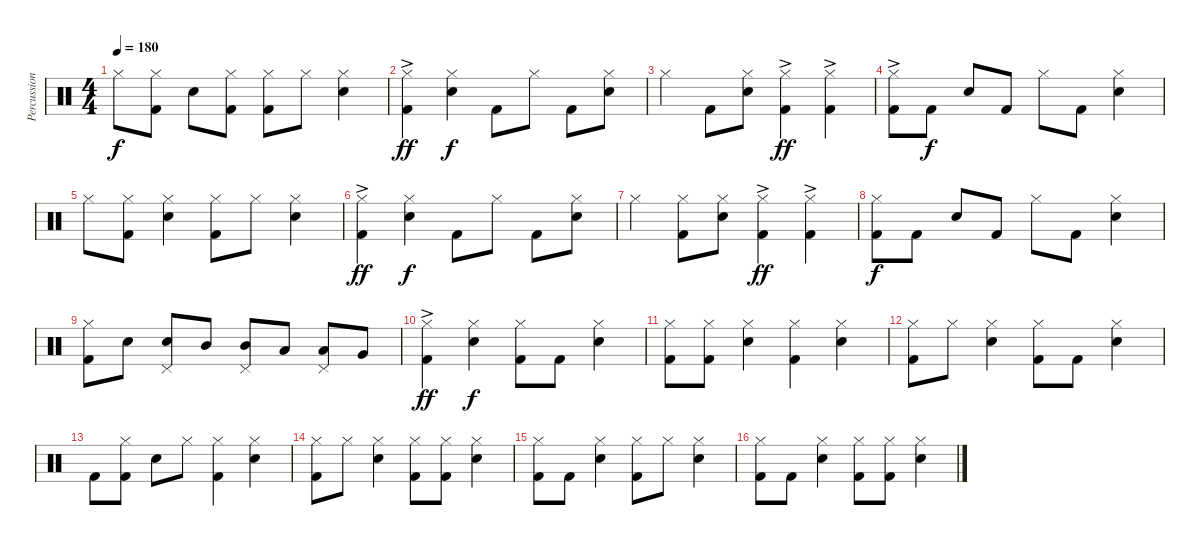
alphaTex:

\track ("Percussion" "Percussion") {instrument percussion}
\staff {score}
\articulation defaults
\ts (4 4)
\tempo 180
\clef neutral
\ks c "Hi-Hat (closed)".8{dy f}
("Hi-Hat (closed)" "Kick (hit) 2").8 "Snare (hit) 2".8 ("Hi-Hat (closed)" "Kick (hit) 2").8 ("Hi-Hat (closed)" "Kick (hit) 2").8 "Hi-Hat (closed)".8 ("Hi-Hat (closed)" "Snare (hit) 2").4 |
("Hi-Hat (closed)"{ac} "Kick (hit) 2").4{dy ff} ("Hi-Hat (closed)" "Snare (hit) 2").4{dy f} "Kick (hit) 2".8 "Hi-Hat (closed)".8 "Kick (hit) 2".8 ("Hi-Hat (closed)" "Snare (hit) 2").8 |
"Hi-Hat (closed)".4 "Kick (hit) 2".8 ("Hi-Hat (closed)" "Snare (hit) 2").8 ("Hi-Hat (closed)"{ac} "Kick (hit) 2").4{dy ff} ("Hi-Hat (closed)"{ac} "Kick (hit) 2").4 |
("Hi-Hat (closed)"{ac} "Kick (hit) 2").8 "Kick (hit) 2".8{dy f} "Snare (hit) 2".8 "Kick (hit) 2".8 "Hi-Hat (closed)".8 "Kick (hit) 2".8 ("Hi-Hat (closed)" "Snare (hit) 2").4 |
"Hi-Hat (closed)".8 ("Hi-Hat (closed)" "Kick (hit) 2").8 ("Hi-Hat (closed)" "Snare (hit) 2").4 ("Hi-Hat (closed)" "Kick (hit) 2").8 "Hi-Hat (closed)".8 ("Hi-Hat (closed)" "Snare (hit) 2").4 |
("Hi-Hat (closed)"{ac} "Kick (hit) 2").4{dy ff} ("Hi-Hat (closed)" "Snare (hit) 2").4{dy f} "Kick (hit) 2".8 "Hi-Hat (closed)".8 "Kick (hit) 2".8 ("Hi-Hat (closed)" "Snare (hit) 2").8 |
"Hi-Hat (closed)".4 ("Hi-Hat (closed)" "Kick (hit) 2").8 ("Hi-Hat (closed)" "Snare (hit) 2").8 ("Hi-Hat (closed)" "Kick (hit) 2"{ac}).4{dy ff} ("Hi-Hat (closed)" "Kick (hit) 2"{ac}).4 |
("Hi-Hat (closed)" "Kick (hit) 2").8{dy f} "Kick (hit) 2".8 "Snare (hit) 2".8 "Kick (hit) 2".8 "Hi-Hat (closed)".8 "Kick (hit) 2".8 ("Hi-Hat (closed)" "Snare (hit) 2").4 |
("Hi-Hat (closed)" "Kick (hit) 2").8 "Snare (hit) 2".8 ("Pedal Hi-Hat (hit)" "Snare (hit) 2").8 "Mid Tom (hit)".8 ("Pedal Hi-Hat (hit)" "Mid Tom (hit)").8 "Low Tom (hit)".8 ("Pedal Hi-Hat (hit)" "Low Tom (hit)").8 "Very Low Tom (hit)".8 |
("Hi-Hat (closed)"{ac} "Kick (hit) 2").4{dy ff} ("Hi-Hat (closed)" "Snare (hit) 2").4{dy f} ("Hi-Hat (closed)" "Kick (hit) 2").8 "Kick (hit) 2".8 ("Hi-Hat (closed)" "Snare (hit) 2").4 |
("Hi-Hat (closed)" "Kick (hit) 2").8 ("Hi-Hat (closed)" "Kick (hit) 2").8 ("Hi-Hat (closed)" "Snare (hit) 2").4 ("Hi-Hat (closed)" "Kick (hit) 2").4 ("Hi-Hat (closed)" "Snare (hit) 2").4 |
("Hi-Hat (closed)" "Kick (hit) 2").8 "Hi-Hat (closed)".8 ("Hi-Hat (closed)" "Snare (hit) 2").4 ("Hi-Hat (closed)" "Kick (hit) 2").8 "Kick (hit) 2".8 ("Hi-Hat (closed)" "Snare (hit) 2").4 |
"Kick (hit) 2".8 ("Hi-Hat (closed)" "Kick (hit) 2").8 "Snare (hit) 2".8 "Hi-Hat (closed)".8 ("Hi-Hat (closed)" "Kick (hit) 2").4 ("Hi-Hat (closed)" "Snare (hit) 2").4 |
("Hi-Hat (closed)" "Kick (hit) 2").8 "Hi-Hat (closed)".8 ("Hi-Hat (closed)" "Snare (hit) 2").4 ("Hi-Hat (closed)" "Kick (hit) 2").8 ("Hi-Hat (closed)" "Kick (hit) 2").8 ("Hi-Hat (closed)" "Snare (hit) 2").4 |
("Hi-Hat (closed)" "Kick (hit) 2").8 "Kick (hit) 2".8 ("Hi-Hat (closed)" "Snare (hit) 2").4 ("Hi-Hat (closed)" "Kick (hit) 2").8 "Hi-Hat (closed)".8 ("Hi-Hat (closed)" "Snare (hit) 2").4 |
("Hi-Hat (closed)" "Kick (hit) 2").8 "Kick (hit) 2".8 ("Hi-Hat (closed)" "Snare (hit) 2").4 ("Hi-Hat (closed)" "Kick (hit) 2").8 ("Hi-Hat (closed)" "Kick (hit) 2").8 ("Hi-Hat (closed)" "Snare (hit) 2").4
